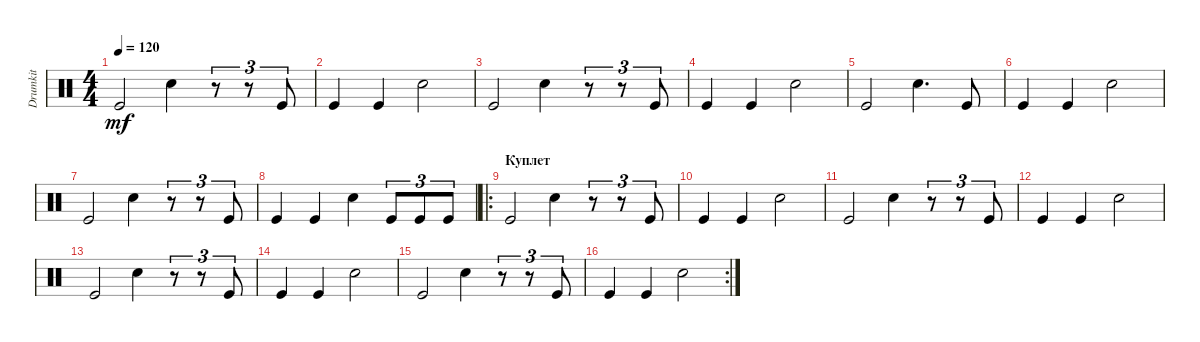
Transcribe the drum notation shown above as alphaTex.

\track ("Drumkit" "Drumkit") {instrument percussion}
\staff {score}
\articulation defaults
\ts (4 4)
\tempo 120
\clef neutral
\ks c "Kick (hit)".2{dy mf} "Snare (hit) 2".4
r.8{tu (3 2)} r.8{tu (3 2)} "Kick (hit)".8{tu (3 2)} |
"Kick (hit)".4 "Kick (hit)".4 "Snare (hit) 2".2 |
"Kick (hit)".2 "Snare (hit) 2".4 r.8{tu (3 2)} r.8{tu (3 2)} "Kick (hit)".8{tu (3 2)} |
"Kick (hit)".4 "Kick (hit)".4 "Snare (hit) 2".2 |
"Kick (hit)".2 "Snare (hit) 2".4{d} "Kick (hit)".8 |
"Kick (hit)".4 "Kick (hit)".4 "Snare (hit) 2".2 |
"Kick (hit)".2 "Snare (hit) 2".4 r.8{tu (3 2)} r.8{tu (3 2)} "Kick (hit)".8{tu (3 2)} |
"Kick (hit)".4 "Kick (hit)".4 "Snare (hit) 2".4 "Kick (hit)".8{tu (3 2)} "Kick (hit)".8{tu (3 2)} "Kick (hit)".8{tu (3 2)} |
\ro
\section ("" "Куплет")
"Kick (hit)".2 "Snare (hit) 2".4 r.8{tu (3 2)} r.8{tu (3 2)} "Kick (hit)".8{tu (3 2)} |
"Kick (hit)".4 "Kick (hit)".4 "Snare (hit) 2".2 |
"Kick (hit)".2 "Snare (hit) 2".4 r.8{tu (3 2)} r.8{tu (3 2)} "Kick (hit)".8{tu (3 2)} |
"Kick (hit)".4 "Kick (hit)".4 "Snare (hit) 2".2 |
"Kick (hit)".2 "Snare (hit) 2".4 r.8{tu (3 2)} r.8{tu (3 2)} "Kick (hit)".8{tu (3 2)} |
"Kick (hit)".4 "Kick (hit)".4 "Snare (hit) 2".2 |
"Kick (hit)".2 "Snare (hit) 2".4 r.8{tu (3 2)} r.8{tu (3 2)} "Kick (hit)".8{tu (3 2)} |
\rc 2 "Kick (hit)".4 "Kick (hit)".4 "Snare (hit) 2".2
